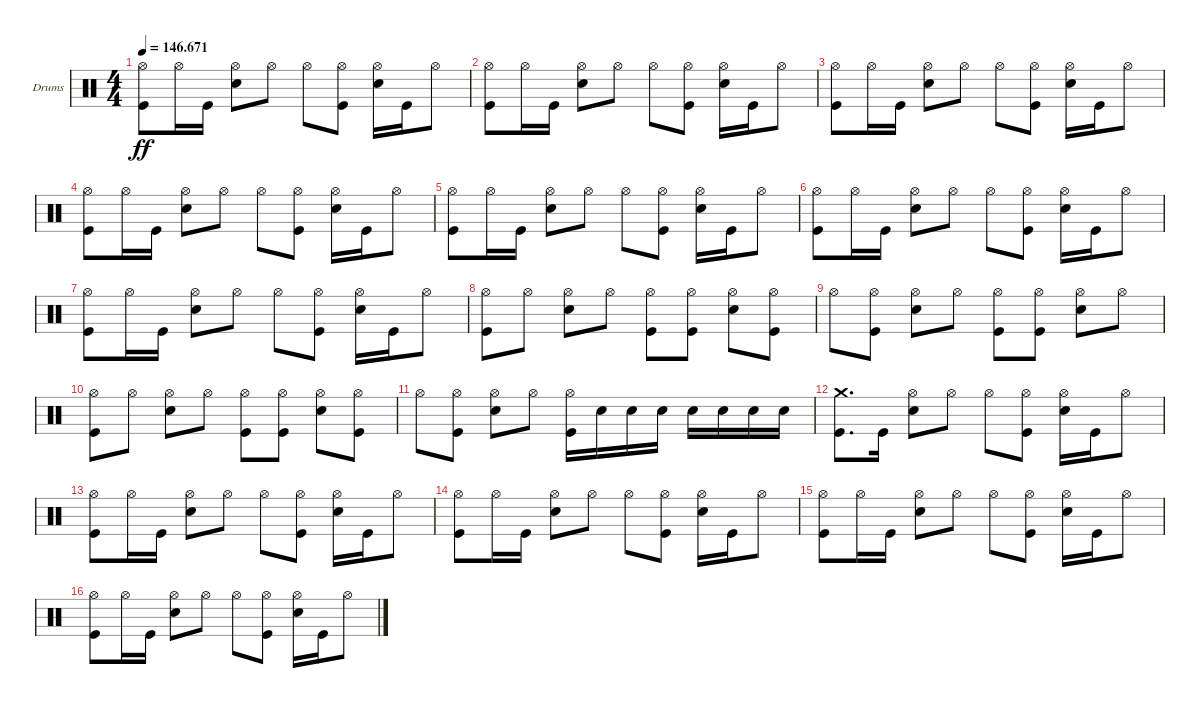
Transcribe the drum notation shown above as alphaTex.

\bracketExtendMode groupsimilarinstruments
\firstSystemTrackNameOrientation horizontal
\otherSystemsTrackNameOrientation horizontal
\track ("Drumkit" "Drums") {instrument percussion}
\staff {score}
\articulation defaults
\ts (4 4)
\tempo
146.671
\accidentals auto
\clef neutral
\ottava regular
\simile none
\ks c
("Hi-Hat (open)" "Kick (hit)").8{dy ff} "Hi-Hat (open)".16 "Kick (hit)".16 ("Hi-Hat (open)" "Snare (hit) 2").8 "Hi-Hat (open)".8 "Hi-Hat (open)".8 ("Hi-Hat (open)" "Kick (hit)").8 ("Hi-Hat (open)" "Snare (hit) 2").16 "Kick (hit)".16 "Hi-Hat (open)".8 |
("Hi-Hat (open)" "Kick (hit)").8 "Hi-Hat (open)".16 "Kick (hit)".16 ("Hi-Hat (open)" "Snare (hit) 2").8 "Hi-Hat (open)".8 "Hi-Hat (open)".8 ("Hi-Hat (open)" "Kick (hit)").8 ("Hi-Hat (open)" "Snare (hit) 2").16 "Kick (hit)".16 "Hi-Hat (open)".8 |
("Hi-Hat (open)" "Kick (hit)").8 "Hi-Hat (open)".16 "Kick (hit)".16 ("Hi-Hat (open)" "Snare (hit) 2").8 "Hi-Hat (open)".8 "Hi-Hat (open)".8 ("Hi-Hat (open)" "Kick (hit)").8 ("Hi-Hat (open)" "Snare (hit) 2").16 "Kick (hit)".16 "Hi-Hat (open)".8 |
("Hi-Hat (open)" "Kick (hit)").8 "Hi-Hat (open)".16 "Kick (hit)".16 ("Hi-Hat (open)" "Snare (hit) 2").8 "Hi-Hat (open)".8 "Hi-Hat (open)".8 ("Hi-Hat (open)" "Kick (hit)").8 ("Hi-Hat (open)" "Snare (hit) 2").16 "Kick (hit)".16 "Hi-Hat (open)".8 |
("Hi-Hat (open)" "Kick (hit)").8 "Hi-Hat (open)".16 "Kick (hit)".16 ("Hi-Hat (open)" "Snare (hit) 2").8 "Hi-Hat (open)".8 "Hi-Hat (open)".8 ("Hi-Hat (open)" "Kick (hit)").8 ("Hi-Hat (open)" "Snare (hit) 2").16 "Kick (hit)".16 "Hi-Hat (open)".8 |
("Hi-Hat (open)" "Kick (hit)").8 "Hi-Hat (open)".16 "Kick (hit)".16 ("Hi-Hat (open)" "Snare (hit) 2").8 "Hi-Hat (open)".8 "Hi-Hat (open)".8 ("Hi-Hat (open)" "Kick (hit)").8 ("Hi-Hat (open)" "Snare (hit) 2").16 "Kick (hit)".16 "Hi-Hat (open)".8 |
("Hi-Hat (open)" "Kick (hit)").8 "Hi-Hat (open)".16 "Kick (hit)".16 ("Hi-Hat (open)" "Snare (hit) 2").8 "Hi-Hat (open)".8 "Hi-Hat (open)".8 ("Hi-Hat (open)" "Kick (hit)").8 ("Hi-Hat (open)" "Snare (hit) 2").16 "Kick (hit)".16 "Hi-Hat (open)".8 |
("Hi-Hat (open)" "Kick (hit)").8 "Hi-Hat (open)".8 ("Hi-Hat (open)" "Snare (hit) 2").8 "Hi-Hat (open)".8 ("Hi-Hat (open)" "Kick (hit)").8 ("Hi-Hat (open)" "Kick (hit)").8 ("Hi-Hat (open)" "Snare (hit) 2").8 ("Hi-Hat (open)" "Kick (hit)").8 |
"Hi-Hat (open)".8 ("Hi-Hat (open)" "Kick (hit)").8 ("Hi-Hat (open)" "Snare (hit) 2").8 "Hi-Hat (open)".8 ("Hi-Hat (open)" "Kick (hit)").8 ("Hi-Hat (open)" "Kick (hit)").8 ("Hi-Hat (open)" "Snare (hit) 2").8 "Hi-Hat (open)".8 |
("Hi-Hat (open)" "Kick (hit)").8 "Hi-Hat (open)".8 ("Hi-Hat (open)" "Snare (hit) 2").8 "Hi-Hat (open)".8 ("Hi-Hat (open)" "Kick (hit)").8 ("Hi-Hat (open)" "Kick (hit)").8 ("Hi-Hat (open)" "Snare (hit) 2").8 ("Hi-Hat (open)" "Kick (hit)").8 |
"Hi-Hat (open)".8 ("Hi-Hat (open)" "Kick (hit)").8 ("Hi-Hat (open)" "Snare (hit) 2").8 "Hi-Hat (open)".8 ("Hi-Hat (open)" "Kick (hit)").16 "Snare (hit) 2".16 "Snare (hit) 2".16 "Snare (hit) 2".16 "Snare (hit) 2".16 "Snare (hit) 2".16 "Snare (hit) 2".16 "Snare (hit) 2".16 |
("Crash medium (hit)" "Kick (hit)").8{d} "Kick (hit)".16 ("Hi-Hat (open)" "Snare (hit) 2").8 "Hi-Hat (open)".8 "Hi-Hat (open)".8 ("Hi-Hat (open)" "Kick (hit)").8 ("Hi-Hat (open)" "Snare (hit) 2").16 "Kick (hit)".16 "Hi-Hat (open)".8 |
("Hi-Hat (open)" "Kick (hit)").8 "Hi-Hat (open)".16 "Kick (hit)".16 ("Hi-Hat (open)" "Snare (hit) 2").8 "Hi-Hat (open)".8 "Hi-Hat (open)".8 ("Hi-Hat (open)" "Kick (hit)").8 ("Hi-Hat (open)" "Snare (hit) 2").16 "Kick (hit)".16 "Hi-Hat (open)".8 |
("Hi-Hat (open)" "Kick (hit)").8 "Hi-Hat (open)".16 "Kick (hit)".16 ("Hi-Hat (open)" "Snare (hit) 2").8 "Hi-Hat (open)".8 "Hi-Hat (open)".8 ("Hi-Hat (open)" "Kick (hit)").8 ("Hi-Hat (open)" "Snare (hit) 2").16 "Kick (hit)".16 "Hi-Hat (open)".8 |
("Hi-Hat (open)" "Kick (hit)").8 "Hi-Hat (open)".16 "Kick (hit)".16 ("Hi-Hat (open)" "Snare (hit) 2").8 "Hi-Hat (open)".8 "Hi-Hat (open)".8 ("Hi-Hat (open)" "Kick (hit)").8 ("Hi-Hat (open)" "Snare (hit) 2").16 "Kick (hit)".16 "Hi-Hat (open)".8 |
("Hi-Hat (open)" "Kick (hit)").8 "Hi-Hat (open)".16 "Kick (hit)".16 ("Hi-Hat (open)" "Snare (hit) 2").8 "Hi-Hat (open)".8 "Hi-Hat (open)".8 ("Hi-Hat (open)" "Kick (hit)").8 ("Hi-Hat (open)" "Snare (hit) 2").16 "Kick (hit)".16 "Hi-Hat (open)".8
